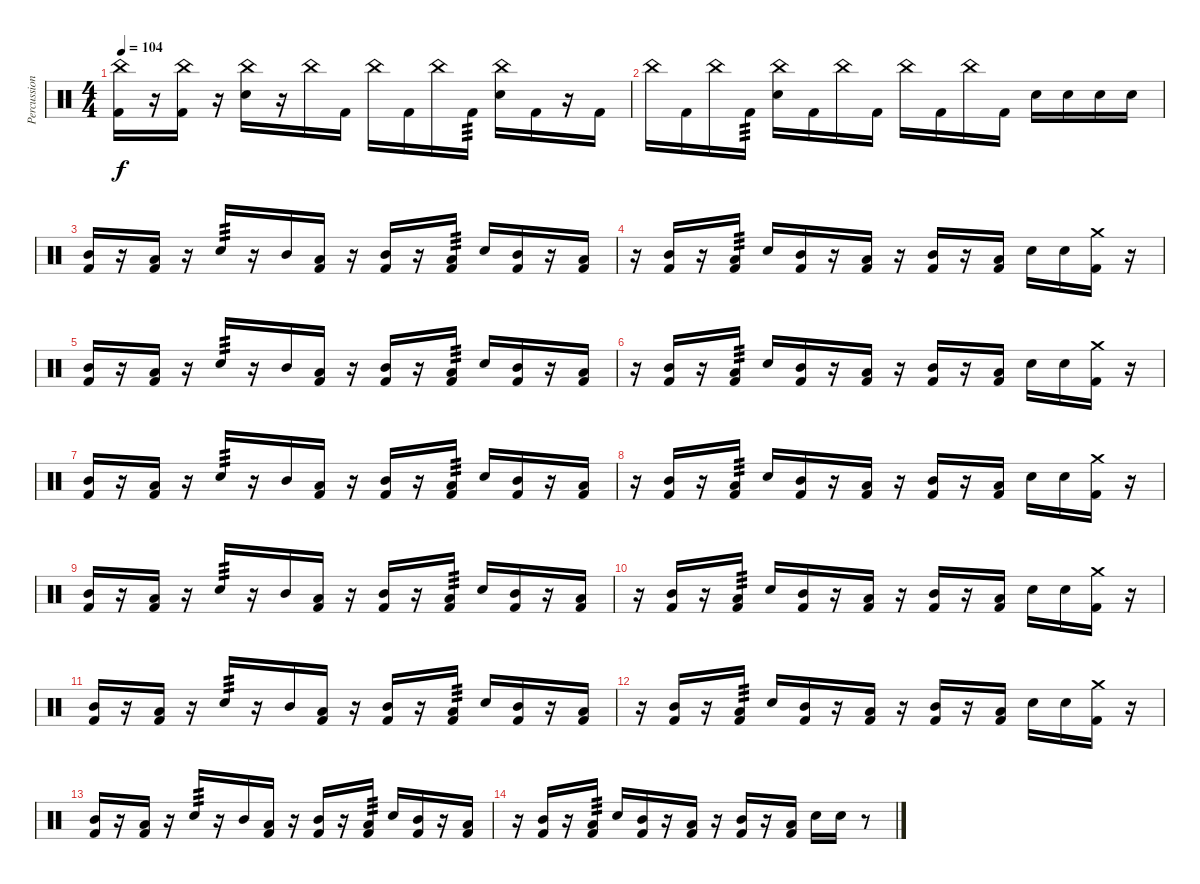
\track ("Percussion" "Percussion") {instrument percussion}
\staff {score}
\articulation defaults
\ts (4 4)
\tempo 104
\clef neutral
\ks c
("China (hit)" "Kick (hit) 2").16{dy f} r.16 ("China (hit)" "Kick (hit) 2").16 r.16 ("China (hit)" "Snare (hit) 2").16 r.16 "China (hit)".16 "Kick (hit) 2".16 "China (hit)".16 "Kick (hit) 2".16 "China (hit)".16 "Kick (hit) 2".16{tp 3} ("China (hit)" "Snare (hit) 2").16 "Kick (hit) 2".16 r.16 "Kick (hit) 2".16 |
"China (hit)".16 "Kick (hit) 2".16 "China (hit)".16 "Kick (hit) 2".16{tp 3} ("China (hit)" "Snare (hit) 2").16 "Kick (hit) 2".16 "China (hit)".16 "Kick (hit) 2".16 "China (hit)".16 "Kick (hit) 2".16 "China (hit)".16 "Kick (hit) 2".16 "Snare (hit) 2".16 "Snare (hit) 2".16 "Snare (hit) 2".16 "Snare (hit) 2".16 |
("Mid Tom (hit)" "Kick (hit) 2").16 r.16 ("Low Tom (hit)" "Kick (hit) 2").16 r.16 "Snare (hit) 2".16{tp 3} r.16 "Mid Tom (hit)".16 ("Low Tom (hit)" "Kick (hit) 2").16 r.16 ("Mid Tom (hit)" "Kick (hit) 2").16 r.16 ("Low Tom (hit)" "Kick (hit) 2").16{tp 3} "Snare (hit) 2".16 ("Mid Tom (hit)" "Kick (hit) 2").16 r.16 ("Low Tom (hit)" "Kick (hit) 2").16 |
r.16 ("Mid Tom (hit)" "Kick (hit) 2").16 r.16 ("Low Tom (hit)" "Kick (hit) 2").16{tp 3} "Snare (hit) 2".16 ("Mid Tom (hit)" "Kick (hit) 2").16 r.16 ("Low Tom (hit)" "Kick (hit) 2").16 r.16 ("Mid Tom (hit)" "Kick (hit) 2").16 r.16 ("Low Tom (hit)" "Kick (hit) 2").16 "Snare (hit) 2".16 "Snare (hit) 2".16 ("Crash medium (hit)" "Kick (hit) 2").16 r.16 |
("Mid Tom (hit)" "Kick (hit) 2").16 r.16 ("Low Tom (hit)" "Kick (hit) 2").16 r.16 "Snare (hit) 2".16{tp 3} r.16 "Mid Tom (hit)".16 ("Low Tom (hit)" "Kick (hit) 2").16 r.16 ("Mid Tom (hit)" "Kick (hit) 2").16 r.16 ("Low Tom (hit)" "Kick (hit) 2").16{tp 3} "Snare (hit) 2".16 ("Mid Tom (hit)" "Kick (hit) 2").16 r.16 ("Low Tom (hit)" "Kick (hit) 2").16 |
r.16 ("Mid Tom (hit)" "Kick (hit) 2").16 r.16 ("Low Tom (hit)" "Kick (hit) 2").16{tp 3} "Snare (hit) 2".16 ("Mid Tom (hit)" "Kick (hit) 2").16 r.16 ("Low Tom (hit)" "Kick (hit) 2").16 r.16 ("Mid Tom (hit)" "Kick (hit) 2").16 r.16 ("Low Tom (hit)" "Kick (hit) 2").16 "Snare (hit) 2".16 "Snare (hit) 2".16 ("Crash medium (hit)" "Kick (hit) 2").16 r.16 |
("Mid Tom (hit)" "Kick (hit) 2").16 r.16 ("Low Tom (hit)" "Kick (hit) 2").16 r.16 "Snare (hit) 2".16{tp 3} r.16 "Mid Tom (hit)".16 ("Low Tom (hit)" "Kick (hit) 2").16 r.16 ("Mid Tom (hit)" "Kick (hit) 2").16 r.16 ("Low Tom (hit)" "Kick (hit) 2").16{tp 3} "Snare (hit) 2".16 ("Mid Tom (hit)" "Kick (hit) 2").16 r.16 ("Low Tom (hit)" "Kick (hit) 2").16 |
r.16 ("Mid Tom (hit)" "Kick (hit) 2").16 r.16 ("Low Tom (hit)" "Kick (hit) 2").16{tp 3} "Snare (hit) 2".16 ("Mid Tom (hit)" "Kick (hit) 2").16 r.16 ("Low Tom (hit)" "Kick (hit) 2").16 r.16 ("Mid Tom (hit)" "Kick (hit) 2").16 r.16 ("Low Tom (hit)" "Kick (hit) 2").16 "Snare (hit) 2".16 "Snare (hit) 2".16 ("Crash medium (hit)" "Kick (hit) 2").16 r.16 |
("Mid Tom (hit)" "Kick (hit) 2").16 r.16 ("Low Tom (hit)" "Kick (hit) 2").16 r.16 "Snare (hit) 2".16{tp 3} r.16 "Mid Tom (hit)".16 ("Low Tom (hit)" "Kick (hit) 2").16 r.16 ("Mid Tom (hit)" "Kick (hit) 2").16 r.16 ("Low Tom (hit)" "Kick (hit) 2").16{tp 3} "Snare (hit) 2".16 ("Mid Tom (hit)" "Kick (hit) 2").16 r.16 ("Low Tom (hit)" "Kick (hit) 2").16 |
r.16 ("Mid Tom (hit)" "Kick (hit) 2").16 r.16 ("Low Tom (hit)" "Kick (hit) 2").16{tp 3} "Snare (hit) 2".16 ("Mid Tom (hit)" "Kick (hit) 2").16 r.16 ("Low Tom (hit)" "Kick (hit) 2").16 r.16 ("Mid Tom (hit)" "Kick (hit) 2").16 r.16 ("Low Tom (hit)" "Kick (hit) 2").16 "Snare (hit) 2".16 "Snare (hit) 2".16 ("Crash medium (hit)" "Kick (hit) 2").16 r.16 |
("Mid Tom (hit)" "Kick (hit) 2").16 r.16 ("Low Tom (hit)" "Kick (hit) 2").16 r.16 "Snare (hit) 2".16{tp 3} r.16 "Mid Tom (hit)".16 ("Low Tom (hit)" "Kick (hit) 2").16 r.16 ("Mid Tom (hit)" "Kick (hit) 2").16 r.16 ("Low Tom (hit)" "Kick (hit) 2").16{tp 3} "Snare (hit) 2".16 ("Mid Tom (hit)" "Kick (hit) 2").16 r.16 ("Low Tom (hit)" "Kick (hit) 2").16 |
r.16 ("Mid Tom (hit)" "Kick (hit) 2").16 r.16 ("Low Tom (hit)" "Kick (hit) 2").16{tp 3} "Snare (hit) 2".16 ("Mid Tom (hit)" "Kick (hit) 2").16 r.16 ("Low Tom (hit)" "Kick (hit) 2").16 r.16 ("Mid Tom (hit)" "Kick (hit) 2").16 r.16 ("Low Tom (hit)" "Kick (hit) 2").16 "Snare (hit) 2".16 "Snare (hit) 2".16 ("Crash medium (hit)" "Kick (hit) 2").16 r.16 |
("Mid Tom (hit)" "Kick (hit) 2").16 r.16 ("Low Tom (hit)" "Kick (hit) 2").16 r.16 "Snare (hit) 2".16{tp 3} r.16 "Mid Tom (hit)".16 ("Low Tom (hit)" "Kick (hit) 2").16 r.16 ("Mid Tom (hit)" "Kick (hit) 2").16 r.16 ("Low Tom (hit)" "Kick (hit) 2").16{tp 3} "Snare (hit) 2".16 ("Mid Tom (hit)" "Kick (hit) 2").16 r.16 ("Low Tom (hit)" "Kick (hit) 2").16 |
r.16 ("Mid Tom (hit)" "Kick (hit) 2").16 r.16 ("Low Tom (hit)" "Kick (hit) 2").16{tp 3} "Snare (hit) 2".16 ("Mid Tom (hit)" "Kick (hit) 2").16 r.16 ("Low Tom (hit)" "Kick (hit) 2").16 r.16 ("Mid Tom (hit)" "Kick (hit) 2").16 r.16 ("Low Tom (hit)" "Kick (hit) 2").16 "Snare (hit) 2".16 "Snare (hit) 2".16 r.8
